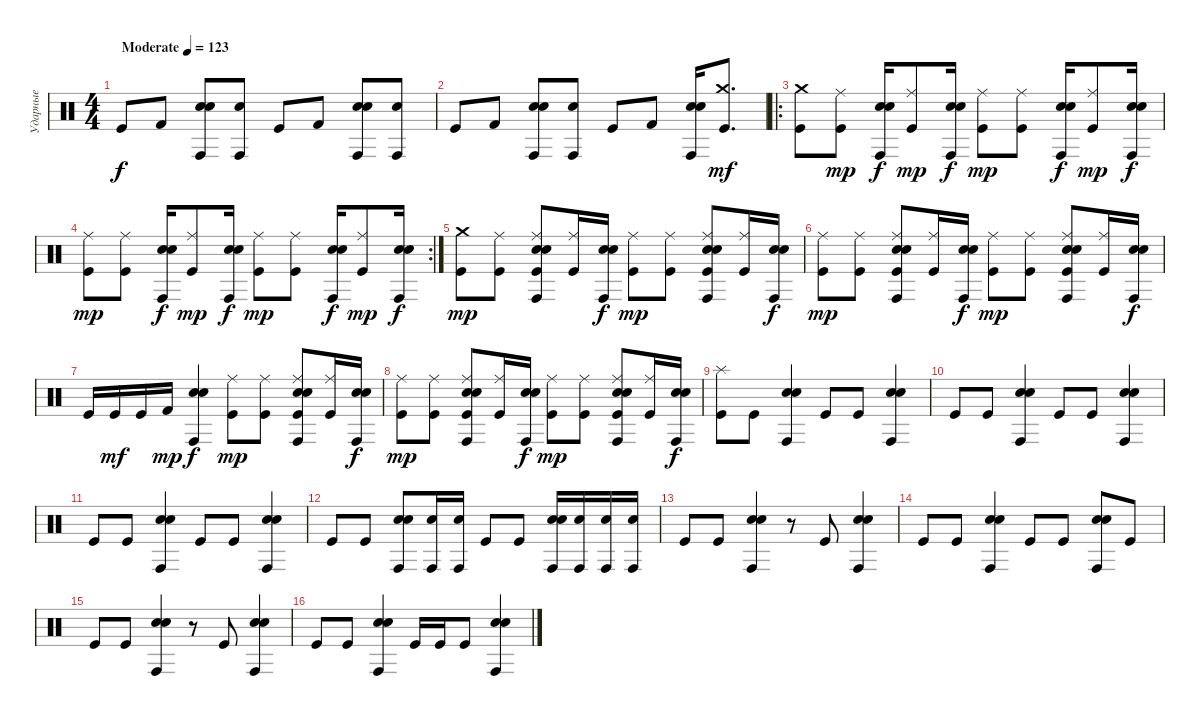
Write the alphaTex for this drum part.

\track ("Ударные" "Ударные") {instrument percussion}
\staff {score}
\articulation defaults
\ts (4 4)
\tempo (123 "Moderate")
\clef neutral
\ks c "Kick (hit)".8{dy f} "Kick (hit) 2".8
("Conga high (hit)" "Electric Snare (hit)" "Snare (hit) 2").8 ("Conga high (hit)" "Electric Snare (hit)").8 "Kick (hit)".8 "Kick (hit) 2".8 ("Conga high (hit)" "Electric Snare (hit)" "Snare (hit) 2").8 ("Conga high (hit)" "Electric Snare (hit)").8 |
"Kick (hit)".8 "Kick (hit) 2".8 ("Conga high (hit)" "Electric Snare (hit)" "Snare (hit) 2").8 ("Conga high (hit)" "Electric Snare (hit)").8 "Kick (hit)".8 "Kick (hit) 2".8 ("Conga high (hit)" "Electric Snare (hit)" "Snare (hit) 2").16 ("Crash medium (hit)" "Kick (hit)").8{d dy mf} |
\ro
("Crash medium (hit)" "Kick (hit)").8 ("Ride (middle)" "Kick (hit)").8{dy mp} ("Conga high (hit)" "Electric Snare (hit)" "Snare (hit) 2").16{dy f} ("Ride (middle)" "Kick (hit)").8{dy mp} ("Conga high (hit)" "Electric Snare (hit)" "Snare (hit) 2").16{dy f} ("Ride (middle)" "Kick (hit)").8{dy mp} ("Ride (middle)" "Kick (hit)").8 ("Conga high (hit)" "Electric Snare (hit)" "Snare (hit) 2").16{dy f} ("Ride (middle)" "Kick (hit)").8{dy mp} ("Conga high (hit)" "Electric Snare (hit)" "Snare (hit) 2").16{dy f} |
\rc 2
("Ride (middle)" "Kick (hit)").8{dy mp} ("Ride (middle)" "Kick (hit)").8 ("Conga high (hit)" "Electric Snare (hit)" "Snare (hit) 2").16{dy f} ("Ride (middle)" "Kick (hit)").8{dy mp} ("Conga high (hit)" "Electric Snare (hit)" "Snare (hit) 2").16{dy f} ("Ride (middle)" "Kick (hit)").8{dy mp} ("Ride (middle)" "Kick (hit)").8 ("Conga high (hit)" "Electric Snare (hit)" "Snare (hit) 2").16{dy f} ("Ride (middle)" "Kick (hit)").8{dy mp} ("Conga high (hit)" "Electric Snare (hit)" "Snare (hit) 2").16{dy f} |
("Crash medium (hit)" "Kick (hit)").8{dy mp} ("Ride (middle)" "Kick (hit)").8 ("Ride (middle)" "Conga high (hit)" "Electric Snare (hit)" "Snare (hit) 2" "Kick (hit)").8 ("Ride (middle)" "Kick (hit)").16 ("Conga high (hit)" "Electric Snare (hit)" "Snare (hit) 2").16{dy f} ("Ride (middle)" "Kick (hit)").8{dy mp} ("Ride (middle)" "Kick (hit)").8 ("Ride (middle)" "Conga high (hit)" "Electric Snare (hit)" "Snare (hit) 2" "Kick (hit)").8 ("Ride (middle)" "Kick (hit)").16 ("Conga high (hit)" "Electric Snare (hit)" "Snare (hit) 2").16{dy f} |
("Ride (middle)" "Kick (hit)").8{dy mp} ("Ride (middle)" "Kick (hit)").8 ("Ride (middle)" "Conga high (hit)" "Electric Snare (hit)" "Snare (hit) 2" "Kick (hit)").8 ("Ride (middle)" "Kick (hit)").16 ("Conga high (hit)" "Electric Snare (hit)" "Snare (hit) 2").16{dy f} ("Ride (middle)" "Kick (hit)").8{dy mp} ("Ride (middle)" "Kick (hit)").8 ("Ride (middle)" "Conga high (hit)" "Electric Snare (hit)" "Snare (hit) 2" "Kick (hit)").8 ("Ride (middle)" "Kick (hit)").16 ("Conga high (hit)" "Electric Snare (hit)" "Snare (hit) 2").16{dy f} |
"Kick (hit)".16 "Kick (hit)".16{dy mf} "Kick (hit)".16 "Kick (hit) 2".16{dy mp} ("Conga high (hit)" "Electric Snare (hit)" "Snare (hit) 2").4{dy f} ("Ride (middle)" "Kick (hit)").8{dy mp} ("Ride (middle)" "Kick (hit)").8 ("Ride (middle)" "Conga high (hit)" "Electric Snare (hit)" "Snare (hit) 2" "Kick (hit)").8 ("Ride (middle)" "Kick (hit)").16 ("Conga high (hit)" "Electric Snare (hit)" "Snare (hit) 2").16{dy f} |
("Ride (middle)" "Kick (hit)").8{dy mp} ("Ride (middle)" "Kick (hit)").8 ("Ride (middle)" "Conga high (hit)" "Electric Snare (hit)" "Snare (hit) 2" "Kick (hit)").8 ("Ride (middle)" "Kick (hit)").16 ("Conga high (hit)" "Electric Snare (hit)" "Snare (hit) 2").16{dy f} ("Ride (middle)" "Kick (hit)").8{dy mp} ("Ride (middle)" "Kick (hit)").8 ("Ride (middle)" "Conga high (hit)" "Electric Snare (hit)" "Snare (hit) 2" "Kick (hit)").8 ("Ride (middle)" "Kick (hit)").16 ("Conga high (hit)" "Electric Snare (hit)" "Snare (hit) 2").16{dy f} |
("Splash (hit)" "Kick (hit)").8 "Kick (hit)".8 ("Conga high (hit)" "Electric Snare (hit)" "Snare (hit) 2").4 "Kick (hit)".8 "Kick (hit)".8 ("Conga high (hit)" "Electric Snare (hit)" "Snare (hit) 2").4 |
"Kick (hit)".8 "Kick (hit)".8 ("Conga high (hit)" "Electric Snare (hit)" "Snare (hit) 2").4 "Kick (hit)".8 "Kick (hit)".8 ("Conga high (hit)" "Electric Snare (hit)" "Snare (hit) 2").4 |
"Kick (hit)".8 "Kick (hit)".8 ("Conga high (hit)" "Electric Snare (hit)" "Snare (hit) 2").4 "Kick (hit)".8 "Kick (hit)".8 ("Conga high (hit)" "Electric Snare (hit)" "Snare (hit) 2").4 |
"Kick (hit)".8 "Kick (hit)".8 ("Conga high (hit)" "Electric Snare (hit)" "Snare (hit) 2").8 ("Conga high (hit)" "Electric Snare (hit)").16 ("Conga high (hit)" "Electric Snare (hit)").16 "Kick (hit)".8 "Kick (hit)".8 ("Conga high (hit)" "Electric Snare (hit)" "Snare (hit) 2").16 ("Conga high (hit)" "Electric Snare (hit)").16 ("Conga high (hit)" "Electric Snare (hit)").16 ("Conga high (hit)" "Electric Snare (hit)").16 |
"Kick (hit)".8 "Kick (hit)".8 ("Conga high (hit)" "Electric Snare (hit)" "Snare (hit) 2").4 r.8 "Kick (hit)".8 ("Conga high (hit)" "Electric Snare (hit)" "Snare (hit) 2").4 |
"Kick (hit)".8 "Kick (hit)".8 ("Conga high (hit)" "Electric Snare (hit)" "Snare (hit) 2").4 "Kick (hit)".8 "Kick (hit)".8 ("Conga high (hit)" "Electric Snare (hit)" "Snare (hit) 2").8 "Kick (hit)".8 |
"Kick (hit)".8 "Kick (hit)".8 ("Conga high (hit)" "Electric Snare (hit)" "Snare (hit) 2").4 r.8 "Kick (hit)".8 ("Conga high (hit)" "Electric Snare (hit)" "Snare (hit) 2").4 |
"Kick (hit)".8 "Kick (hit)".8 ("Conga high (hit)" "Electric Snare (hit)" "Snare (hit) 2").4 "Kick (hit)".16 "Kick (hit)".16 "Kick (hit)".8 ("Conga high (hit)" "Electric Snare (hit)" "Snare (hit) 2").4
